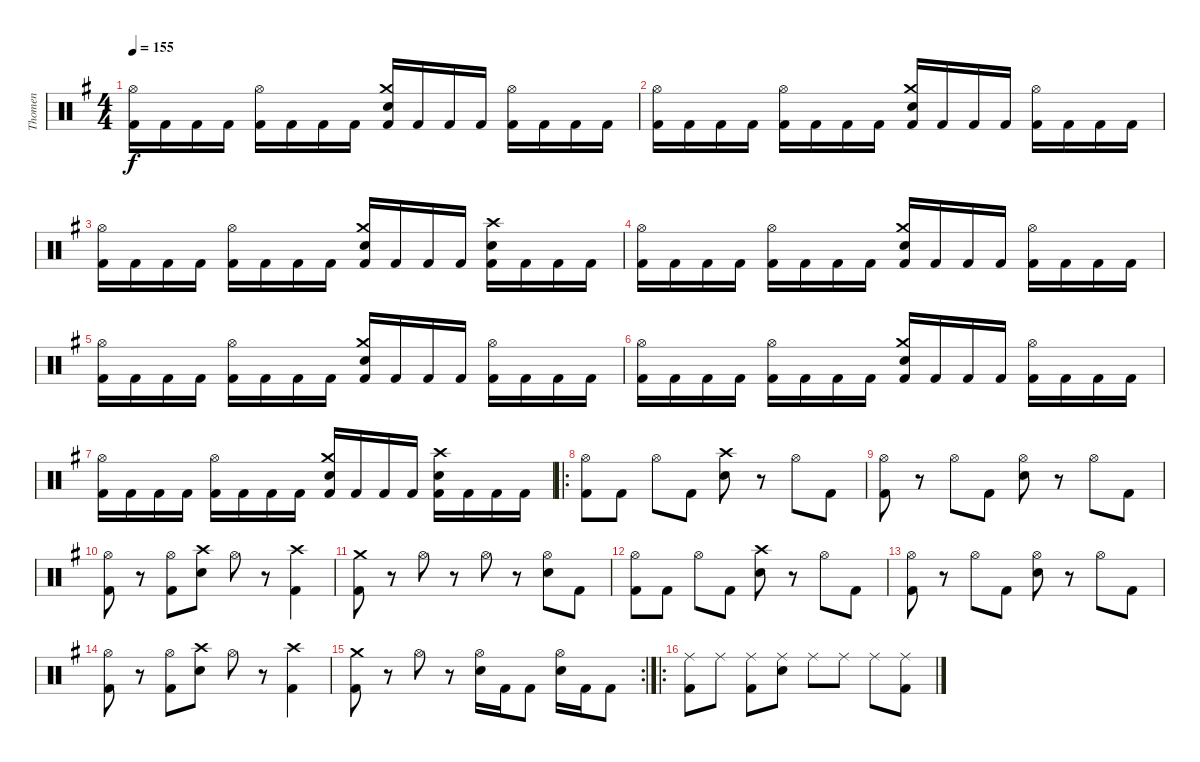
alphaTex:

\track ("Thomen" "Thomen") {instrument percussion}
\staff {score}
\articulation defaults
\ts (4 4)
\tempo 155
\clef neutral
\ks g
("Hi-Hat (open)" "Kick (hit) 2").16{dy f} "Kick (hit) 2".16 "Kick (hit) 2".16 "Kick (hit) 2".16 ("Hi-Hat (open)" "Kick (hit) 2").16 "Kick (hit) 2".16 "Kick (hit) 2".16 "Kick (hit) 2".16 ("Crash medium (hit)" "Electric Snare (hit)" "Kick (hit) 2").16 "Kick (hit) 2".16 "Kick (hit) 2".16 "Kick (hit) 2".16 ("Hi-Hat (open)" "Kick (hit) 2").16 "Kick (hit) 2".16 "Kick (hit) 2".16 "Kick (hit) 2".16 |
("Hi-Hat (open)" "Kick (hit) 2").16 "Kick (hit) 2".16 "Kick (hit) 2".16 "Kick (hit) 2".16 ("Hi-Hat (open)" "Kick (hit) 2").16 "Kick (hit) 2".16 "Kick (hit) 2".16 "Kick (hit) 2".16 ("Crash medium (hit)" "Electric Snare (hit)" "Kick (hit) 2").16 "Kick (hit) 2".16 "Kick (hit) 2".16 "Kick (hit) 2".16 ("Hi-Hat (open)" "Kick (hit) 2").16 "Kick (hit) 2".16 "Kick (hit) 2".16 "Kick (hit) 2".16 |
("Hi-Hat (open)" "Kick (hit) 2").16 "Kick (hit) 2".16 "Kick (hit) 2".16 "Kick (hit) 2".16 ("Hi-Hat (open)" "Kick (hit) 2").16 "Kick (hit) 2".16 "Kick (hit) 2".16 "Kick (hit) 2".16 ("Crash medium (hit)" "Electric Snare (hit)" "Kick (hit) 2").16 "Kick (hit) 2".16 "Kick (hit) 2".16 "Kick (hit) 2".16 ("Crash high (hit)" "Electric Snare (hit)" "Kick (hit) 2").16 "Kick (hit) 2".16 "Kick (hit) 2".16 "Kick (hit) 2".16 |
("Hi-Hat (open)" "Kick (hit) 2").16 "Kick (hit) 2".16 "Kick (hit) 2".16 "Kick (hit) 2".16 ("Hi-Hat (open)" "Kick (hit) 2").16 "Kick (hit) 2".16 "Kick (hit) 2".16 "Kick (hit) 2".16 ("Crash medium (hit)" "Electric Snare (hit)" "Kick (hit) 2").16 "Kick (hit) 2".16 "Kick (hit) 2".16 "Kick (hit) 2".16 ("Hi-Hat (open)" "Kick (hit) 2").16 "Kick (hit) 2".16 "Kick (hit) 2".16 "Kick (hit) 2".16 |
("Hi-Hat (open)" "Kick (hit) 2").16 "Kick (hit) 2".16 "Kick (hit) 2".16 "Kick (hit) 2".16 ("Hi-Hat (open)" "Kick (hit) 2").16 "Kick (hit) 2".16 "Kick (hit) 2".16 "Kick (hit) 2".16 ("Crash medium (hit)" "Electric Snare (hit)" "Kick (hit) 2").16 "Kick (hit) 2".16 "Kick (hit) 2".16 "Kick (hit) 2".16 ("Hi-Hat (open)" "Kick (hit) 2").16 "Kick (hit) 2".16 "Kick (hit) 2".16 "Kick (hit) 2".16 |
("Hi-Hat (open)" "Kick (hit) 2").16 "Kick (hit) 2".16 "Kick (hit) 2".16 "Kick (hit) 2".16 ("Hi-Hat (open)" "Kick (hit) 2").16 "Kick (hit) 2".16 "Kick (hit) 2".16 "Kick (hit) 2".16 ("Crash medium (hit)" "Electric Snare (hit)" "Kick (hit) 2").16 "Kick (hit) 2".16 "Kick (hit) 2".16 "Kick (hit) 2".16 ("Hi-Hat (open)" "Kick (hit) 2").16 "Kick (hit) 2".16 "Kick (hit) 2".16 "Kick (hit) 2".16 |
("Hi-Hat (open)" "Kick (hit) 2").16 "Kick (hit) 2".16 "Kick (hit) 2".16 "Kick (hit) 2".16 ("Hi-Hat (open)" "Kick (hit) 2").16 "Kick (hit) 2".16 "Kick (hit) 2".16 "Kick (hit) 2".16 ("Crash medium (hit)" "Electric Snare (hit)" "Kick (hit) 2").16 "Kick (hit) 2".16 "Kick (hit) 2".16 "Kick (hit) 2".16 ("Crash high (hit)" "Electric Snare (hit)" "Kick (hit) 2").16 "Kick (hit) 2".16 "Kick (hit) 2".16 "Kick (hit) 2".16 |
\ro
("Hi-Hat (open)" "Kick (hit) 2").8 "Kick (hit) 2".8 "Hi-Hat (open)".8 "Kick (hit) 2".8 ("Crash high (hit)" "Electric Snare (hit)").8 r.8 "Hi-Hat (open)".8 "Kick (hit) 2".8 |
("Hi-Hat (open)" "Kick (hit) 2").8 r.8 "Hi-Hat (open)".8 "Kick (hit) 2".8 ("Hi-Hat (open)" "Electric Snare (hit)").8 r.8 "Hi-Hat (open)".8 "Kick (hit) 2".8 |
("Hi-Hat (open)" "Kick (hit) 2").8 r.8 ("Hi-Hat (open)" "Kick (hit) 2").8 ("Crash high (hit)" "Electric Snare (hit)").8 "Hi-Hat (open)".8 r.8 ("Crash high (hit)" "Kick (hit) 2").4 |
("Crash medium (hit)" "Kick (hit) 2").8 r.8 "Hi-Hat (open)".8 r.8 "Hi-Hat (open)".8 r.8 ("Hi-Hat (open)" "Electric Snare (hit)").8 "Kick (hit) 2".8 |
("Hi-Hat (open)" "Kick (hit) 2").8 "Kick (hit) 2".8 "Hi-Hat (open)".8 "Kick (hit) 2".8 ("Crash high (hit)" "Electric Snare (hit)").8 r.8 "Hi-Hat (open)".8 "Kick (hit) 2".8 |
("Hi-Hat (open)" "Kick (hit) 2").8 r.8 "Hi-Hat (open)".8 "Kick (hit) 2".8 ("Hi-Hat (open)" "Electric Snare (hit)").8 r.8 "Hi-Hat (open)".8 "Kick (hit) 2".8 |
("Hi-Hat (open)" "Kick (hit) 2").8 r.8 ("Hi-Hat (open)" "Kick (hit) 2").8 ("Crash high (hit)" "Electric Snare (hit)").8 "Hi-Hat (open)".8 r.8 ("Crash high (hit)" "Kick (hit) 2").4 |
\rc 2
("Crash medium (hit)" "Kick (hit) 2").8 r.8 "Hi-Hat (open)".8 r.8 ("Hi-Hat (open)" "Electric Snare (hit)").16 "Kick (hit) 2".16 "Kick (hit) 2".8 ("Hi-Hat (open)" "Electric Snare (hit)").16 "Kick (hit) 2".16 "Kick (hit) 2".8 |
\ro
("Ride (middle)" "Kick (hit) 2").8 "Ride (middle)".8 ("Ride (middle)" "Kick (hit) 2").8 ("Ride (middle)" "Electric Snare (hit)").8 "Ride (middle)".8 "Ride (middle)".8 "Ride (middle)".8 ("Ride (middle)" "Kick (hit) 2").8
